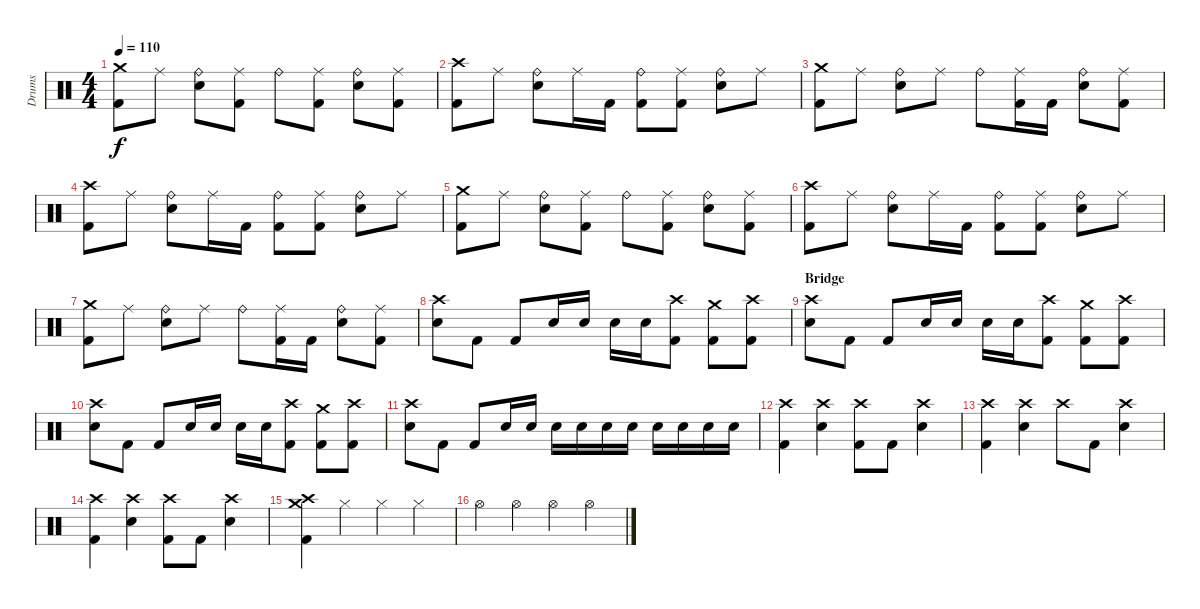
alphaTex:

\track ("Drums" "Drums") {instrument percussion}
\staff {score}
\articulation defaults
\ts (4 4)
\tempo 110
\clef neutral
\ks c
("Crash medium (hit)" "Kick (hit) 2").8{dy f} "Ride (middle)".8 ("Ride (bell)" "Electric Snare (hit)").8 ("Ride (middle)" "Kick (hit) 2").8 "Ride (bell)".8 ("Ride (middle)" "Kick (hit) 2").8 ("Ride (bell)" "Electric Snare (hit)").8 ("Ride (middle)" "Kick (hit) 2").8 |
("Crash high (hit)" "Kick (hit) 2").8 "Ride (middle)".8 ("Ride (bell)" "Electric Snare (hit)").8 "Ride (middle)".16 "Kick (hit) 2".16 ("Ride (bell)" "Kick (hit) 2").8 ("Ride (middle)" "Kick (hit) 2").8 ("Ride (bell)" "Electric Snare (hit)").8 "Ride (middle)".8 |
("Crash medium (hit)" "Kick (hit) 2").8 "Ride (middle)".8 ("Ride (bell)" "Electric Snare (hit)").8 "Ride (middle)".8 "Ride (bell)".8 ("Ride (middle)" "Kick (hit) 2").16 "Kick (hit) 2".16 ("Ride (bell)" "Electric Snare (hit)").8 ("Ride (middle)" "Kick (hit) 2").8 |
("Crash high (hit)" "Kick (hit) 2").8 "Ride (middle)".8 ("Ride (bell)" "Electric Snare (hit)").8 "Ride (middle)".16 "Kick (hit) 2".16 ("Ride (bell)" "Kick (hit) 2").8 ("Ride (middle)" "Kick (hit) 2").8 ("Ride (bell)" "Electric Snare (hit)").8 "Ride (middle)".8 |
("Crash medium (hit)" "Kick (hit) 2").8 "Ride (middle)".8 ("Ride (bell)" "Electric Snare (hit)").8 ("Ride (middle)" "Kick (hit) 2").8 "Ride (bell)".8 ("Ride (middle)" "Kick (hit) 2").8 ("Ride (bell)" "Electric Snare (hit)").8 ("Ride (middle)" "Kick (hit) 2").8 |
("Crash high (hit)" "Kick (hit) 2").8 "Ride (middle)".8 ("Ride (bell)" "Electric Snare (hit)").8 "Ride (middle)".16 "Kick (hit) 2".16 ("Ride (bell)" "Kick (hit) 2").8 ("Ride (middle)" "Kick (hit) 2").8 ("Ride (bell)" "Electric Snare (hit)").8 "Ride (middle)".8 |
("Crash medium (hit)" "Kick (hit) 2").8 "Ride (middle)".8 ("Ride (bell)" "Electric Snare (hit)").8 "Ride (middle)".8 "Ride (bell)".8 ("Ride (middle)" "Kick (hit) 2").16 "Kick (hit) 2".16 ("Ride (bell)" "Electric Snare (hit)").8 ("Ride (middle)" "Kick (hit) 2").8 |
("Crash high (hit)" "Electric Snare (hit)").8 "Kick (hit) 2".8 "Kick (hit) 2".8 "Electric Snare (hit)".16 "Electric Snare (hit)".16 "Electric Snare (hit)".16 "Electric Snare (hit)".16 ("Crash high (hit)" "Kick (hit) 2").8 ("Crash medium (hit)" "Kick (hit) 2").8 ("Crash high (hit)" "Kick (hit) 2").8 |
\section ("" "Bridge")
("Crash high (hit)" "Electric Snare (hit)").8 "Kick (hit) 2".8 "Kick (hit) 2".8 "Electric Snare (hit)".16 "Electric Snare (hit)".16 "Electric Snare (hit)".16 "Electric Snare (hit)".16 ("Crash high (hit)" "Kick (hit) 2").8 ("Crash medium (hit)" "Kick (hit) 2").8 ("Crash high (hit)" "Kick (hit) 2").8 |
("Crash high (hit)" "Electric Snare (hit)").8 "Kick (hit) 2".8 "Kick (hit) 2".8 "Electric Snare (hit)".16 "Electric Snare (hit)".16 "Electric Snare (hit)".16 "Electric Snare (hit)".16 ("Crash high (hit)" "Kick (hit) 2").8 ("Crash medium (hit)" "Kick (hit) 2").8 ("Crash high (hit)" "Kick (hit) 2").8 |
("Crash high (hit)" "Electric Snare (hit)").8 "Kick (hit) 2".8 "Kick (hit) 2".8 "Electric Snare (hit)".16 "Electric Snare (hit)".16 "Electric Snare (hit)".16 "Electric Snare (hit)".16 "Electric Snare (hit)".16 "Electric Snare (hit)".16 "Electric Snare (hit)".16 "Electric Snare (hit)".16 "Electric Snare (hit)".16 "Electric Snare (hit)".16 |
("Crash high (hit)" "Kick (hit) 2").4 ("Crash high (hit)" "Electric Snare (hit)").4 ("Crash high (hit)" "Kick (hit) 2").8 "Kick (hit) 2".8 ("Crash high (hit)" "Electric Snare (hit)").4 |
("Crash high (hit)" "Kick (hit) 2").4 ("Crash high (hit)" "Electric Snare (hit)").4 "Crash high (hit)".8 "Kick (hit) 2".8 ("Crash high (hit)" "Electric Snare (hit)").4 |
("Crash high (hit)" "Kick (hit) 2").4 ("Crash high (hit)" "Electric Snare (hit)").4 ("Crash high (hit)" "Kick (hit) 2").8 "Kick (hit) 2".8 ("Crash high (hit)" "Electric Snare (hit)").4 |
("Crash high (hit)" "Crash medium (hit)" "Kick (hit) 2").4 "Hi-Hat (closed)".4 "Hi-Hat (closed)".4 "Hi-Hat (closed)".4 |
"Hi-Hat (open)".4 "Hi-Hat (open)".4 "Hi-Hat (open)".4 "Hi-Hat (open)".4
